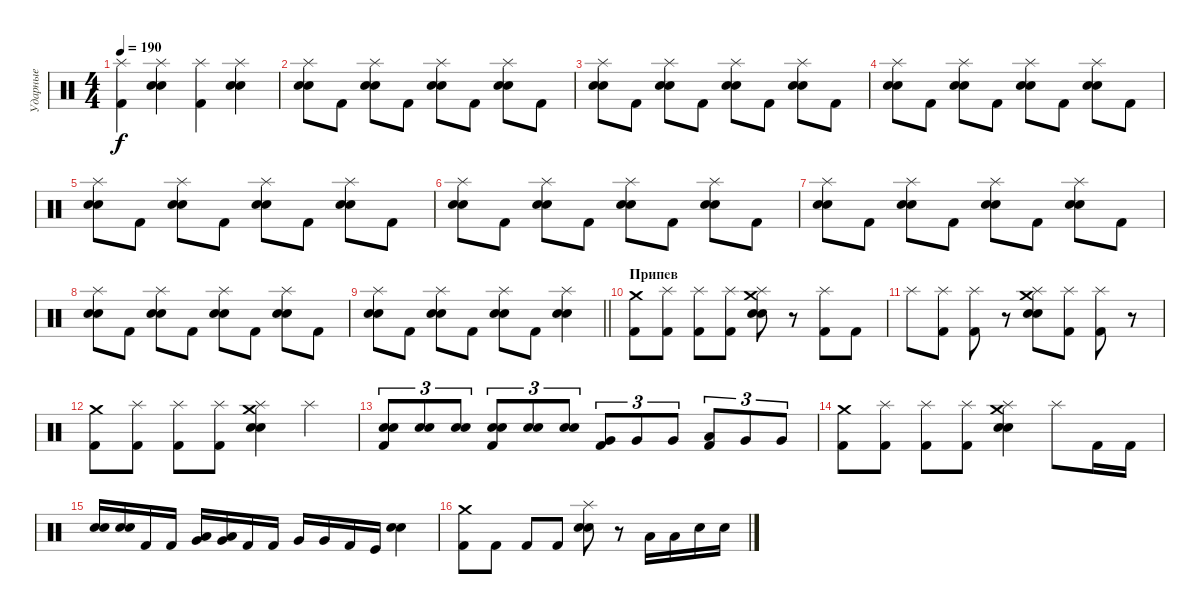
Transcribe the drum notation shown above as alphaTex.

\track ("Ударные" "Ударные") {instrument percussion}
\staff {score}
\articulation defaults
\ts (4 4)
\tempo 190
\clef neutral
\ks c
("Splash (hit)" "Kick (hit) 2").4{dy f} ("Splash (hit)" "Electric Snare (hit)" "Snare (hit) 2").4 ("Splash (hit)" "Kick (hit) 2").4 ("Splash (hit)" "Electric Snare (hit)" "Snare (hit) 2").4 |
("Splash (hit)" "Electric Snare (hit)" "Snare (hit) 2").8 "Kick (hit) 2".8 ("Splash (hit)" "Electric Snare (hit)" "Snare (hit) 2").8 "Kick (hit) 2".8 ("Splash (hit)" "Electric Snare (hit)" "Snare (hit) 2").8 "Kick (hit) 2".8 ("Splash (hit)" "Electric Snare (hit)" "Snare (hit) 2").8 "Kick (hit) 2".8 |
("Splash (hit)" "Electric Snare (hit)" "Snare (hit) 2").8 "Kick (hit) 2".8 ("Splash (hit)" "Electric Snare (hit)" "Snare (hit) 2").8 "Kick (hit) 2".8 ("Splash (hit)" "Electric Snare (hit)" "Snare (hit) 2").8 "Kick (hit) 2".8 ("Splash (hit)" "Electric Snare (hit)" "Snare (hit) 2").8 "Kick (hit) 2".8 |
("Splash (hit)" "Electric Snare (hit)" "Snare (hit) 2").8 "Kick (hit) 2".8 ("Splash (hit)" "Electric Snare (hit)" "Snare (hit) 2").8 "Kick (hit) 2".8 ("Splash (hit)" "Electric Snare (hit)" "Snare (hit) 2").8 "Kick (hit) 2".8 ("Splash (hit)" "Electric Snare (hit)" "Snare (hit) 2").8 "Kick (hit) 2".8 |
("Splash (hit)" "Electric Snare (hit)" "Snare (hit) 2").8 "Kick (hit) 2".8 ("Splash (hit)" "Electric Snare (hit)" "Snare (hit) 2").8 "Kick (hit) 2".8 ("Splash (hit)" "Electric Snare (hit)" "Snare (hit) 2").8 "Kick (hit) 2".8 ("Splash (hit)" "Electric Snare (hit)" "Snare (hit) 2").8 "Kick (hit) 2".8 |
("Splash (hit)" "Electric Snare (hit)" "Snare (hit) 2").8 "Kick (hit) 2".8 ("Splash (hit)" "Electric Snare (hit)" "Snare (hit) 2").8 "Kick (hit) 2".8 ("Splash (hit)" "Electric Snare (hit)" "Snare (hit) 2").8 "Kick (hit) 2".8 ("Splash (hit)" "Electric Snare (hit)" "Snare (hit) 2").8 "Kick (hit) 2".8 |
("Splash (hit)" "Electric Snare (hit)" "Snare (hit) 2").8 "Kick (hit) 2".8 ("Splash (hit)" "Electric Snare (hit)" "Snare (hit) 2").8 "Kick (hit) 2".8 ("Splash (hit)" "Electric Snare (hit)" "Snare (hit) 2").8 "Kick (hit) 2".8 ("Splash (hit)" "Electric Snare (hit)" "Snare (hit) 2").8 "Kick (hit) 2".8 |
("Splash (hit)" "Electric Snare (hit)" "Snare (hit) 2").8 "Kick (hit) 2".8 ("Splash (hit)" "Electric Snare (hit)" "Snare (hit) 2").8 "Kick (hit) 2".8 ("Splash (hit)" "Electric Snare (hit)" "Snare (hit) 2").8 "Kick (hit) 2".8 ("Splash (hit)" "Electric Snare (hit)" "Snare (hit) 2").8 "Kick (hit) 2".8 |
\barLineRight lightlight
("Splash (hit)" "Electric Snare (hit)" "Snare (hit) 2").8 "Kick (hit) 2".8 ("Splash (hit)" "Electric Snare (hit)" "Snare (hit) 2").8 "Kick (hit) 2".8 ("Splash (hit)" "Electric Snare (hit)" "Snare (hit) 2").8 "Kick (hit) 2".8 ("Splash (hit)" "Electric Snare (hit)" "Snare (hit) 2").4 |
\section ("" "Припев")
("Crash medium (hit)" "Kick (hit) 2").8 ("Splash (hit)" "Kick (hit) 2").8 ("Splash (hit)" "Kick (hit) 2").8 ("Splash (hit)" "Kick (hit) 2").8 ("Crash medium (hit)" "Splash (hit)" "Electric Snare (hit)" "Snare (hit) 2").8 r.8 ("Splash (hit)" "Kick (hit) 2").8 "Kick (hit) 2".8 |
"Splash (hit)".8 ("Splash (hit)" "Kick (hit) 2").8 ("Splash (hit)" "Kick (hit) 2").8 r.8 ("Crash medium (hit)" "Splash (hit)" "Electric Snare (hit)" "Snare (hit) 2").8 ("Splash (hit)" "Kick (hit) 2").8 ("Splash (hit)" "Kick (hit) 2").8 r.8 |
("Crash medium (hit)" "Kick (hit) 2").8 ("Splash (hit)" "Kick (hit) 2").8 ("Splash (hit)" "Kick (hit) 2").8 ("Splash (hit)" "Kick (hit) 2").8 ("Crash medium (hit)" "Splash (hit)" "Electric Snare (hit)" "Snare (hit) 2").4 "Splash (hit)".4 |
("Electric Snare (hit)" "Snare (hit) 2" "Kick (hit) 2").8{tu (3 2)} ("Electric Snare (hit)" "Snare (hit) 2").8{tu (3 2)} ("Electric Snare (hit)" "Snare (hit) 2").8{tu (3 2)} ("Electric Snare (hit)" "Snare (hit) 2" "Kick (hit) 2").8{tu (3 2)} ("Electric Snare (hit)" "Snare (hit) 2").8{tu (3 2)} ("Electric Snare (hit)" "Snare (hit) 2").8{tu (3 2)} ("Very Low Tom (hit)" "Kick (hit) 2").8{tu (3 2)} "Very Low Tom (hit)".8{tu (3 2)} "Very Low Tom (hit)".8{tu (3 2)} ("Low Floor Tom (hit)" "Kick (hit) 2").8{tu (3 2)} "Very Low Tom (hit)".8{tu (3 2)} "Very Low Tom (hit)".8{tu (3 2)} |
("Crash medium (hit)" "Kick (hit) 2").8 ("Splash (hit)" "Kick (hit) 2").8 ("Splash (hit)" "Kick (hit) 2").8 ("Splash (hit)" "Kick (hit) 2").8 ("Crash medium (hit)" "Splash (hit)" "Electric Snare (hit)" "Snare (hit) 2").4 "Splash (hit)".8 "Kick (hit) 2".16 "Kick (hit) 2".16 |
("Electric Snare (hit)" "Snare (hit) 2").16 ("Electric Snare (hit)" "Snare (hit) 2").16 "Kick (hit) 2".16 "Kick (hit) 2".16 ("Low Tom (hit)" "Very Low Tom (hit)").16 ("Low Tom (hit)" "Very Low Tom (hit)").16 "Kick (hit) 2".16 "Kick (hit) 2".16 "Very Low Tom (hit)".16 "Very Low Tom (hit)".16 "Kick (hit) 2".16 "Kick (hit)".16 ("Electric Snare (hit)" "Snare (hit) 2").4 |
("Crash medium (hit)" "Kick (hit) 2").8 "Kick (hit) 2".8 "Kick (hit) 2".8 "Kick (hit) 2".8 ("Splash (hit)" "Electric Snare (hit)" "Snare (hit) 2").8 r.8 "Low Tom (hit)".16 "Low Tom (hit)".16 "Electric Snare (hit)".16 "Electric Snare (hit)".16
